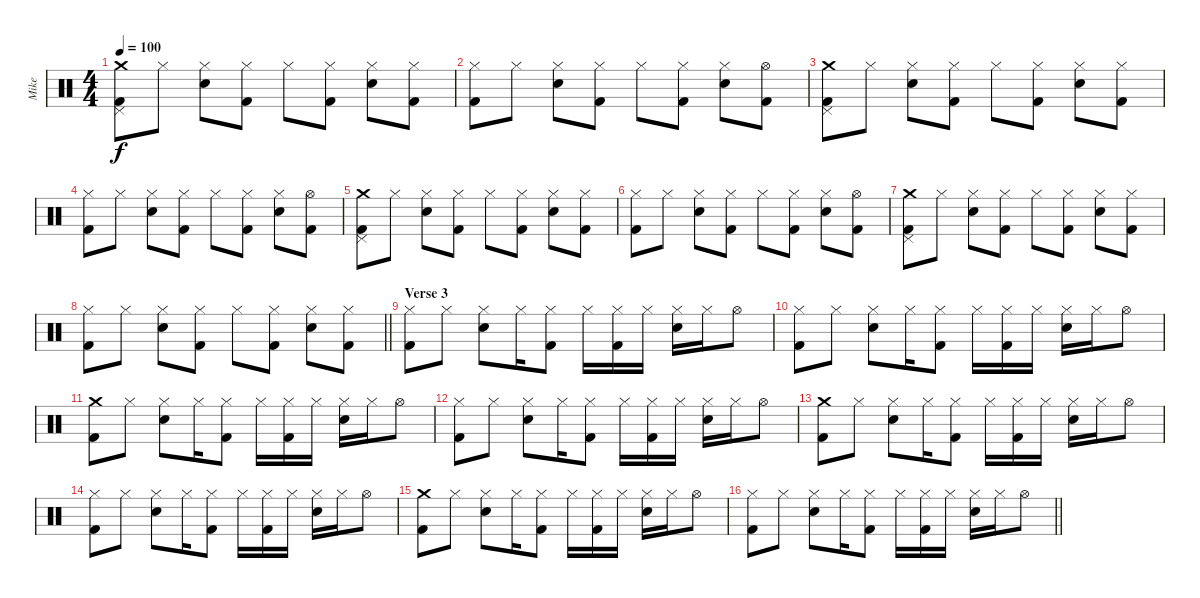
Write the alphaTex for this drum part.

\track ("Mike" "Mike") {instrument percussion}
\staff {score}
\articulation defaults
\ts (4 4)
\tempo 100
\clef neutral
\ks c
("Crash medium (hit)" "Pedal Hi-Hat (hit)" "Kick (hit) 2").8{dy f} "Hi-Hat (closed)".8 ("Hi-Hat (closed)" "Electric Snare (hit)").8 ("Hi-Hat (closed)" "Kick (hit) 2").8 "Hi-Hat (closed)".8 ("Hi-Hat (closed)" "Kick (hit) 2").8 ("Hi-Hat (closed)" "Electric Snare (hit)").8 ("Hi-Hat (closed)" "Kick (hit) 2").8 |
("Hi-Hat (closed)" "Kick (hit) 2").8 "Hi-Hat (closed)".8 ("Hi-Hat (closed)" "Electric Snare (hit)").8 ("Hi-Hat (closed)" "Kick (hit) 2").8 "Hi-Hat (closed)".8 ("Hi-Hat (closed)" "Kick (hit) 2").8 ("Hi-Hat (closed)" "Electric Snare (hit)").8 ("Hi-Hat (open)" "Kick (hit) 2").8 |
("Crash medium (hit)" "Pedal Hi-Hat (hit)" "Kick (hit) 2").8 "Hi-Hat (closed)".8 ("Hi-Hat (closed)" "Electric Snare (hit)").8 ("Hi-Hat (closed)" "Kick (hit) 2").8 "Hi-Hat (closed)".8 ("Hi-Hat (closed)" "Kick (hit) 2").8 ("Hi-Hat (closed)" "Electric Snare (hit)").8 ("Hi-Hat (closed)" "Kick (hit) 2").8 |
("Hi-Hat (closed)" "Kick (hit) 2").8 "Hi-Hat (closed)".8 ("Hi-Hat (closed)" "Electric Snare (hit)").8 ("Hi-Hat (closed)" "Kick (hit) 2").8 "Hi-Hat (closed)".8 ("Hi-Hat (closed)" "Kick (hit) 2").8 ("Hi-Hat (closed)" "Electric Snare (hit)").8 ("Hi-Hat (open)" "Kick (hit) 2").8 |
("Crash medium (hit)" "Pedal Hi-Hat (hit)" "Kick (hit) 2").8 "Hi-Hat (closed)".8 ("Hi-Hat (closed)" "Electric Snare (hit)").8 ("Hi-Hat (closed)" "Kick (hit) 2").8 "Hi-Hat (closed)".8 ("Hi-Hat (closed)" "Kick (hit) 2").8 ("Hi-Hat (closed)" "Electric Snare (hit)").8 ("Hi-Hat (closed)" "Kick (hit) 2").8 |
("Hi-Hat (closed)" "Kick (hit) 2").8 "Hi-Hat (closed)".8 ("Hi-Hat (closed)" "Electric Snare (hit)").8 ("Hi-Hat (closed)" "Kick (hit) 2").8 "Hi-Hat (closed)".8 ("Hi-Hat (closed)" "Kick (hit) 2").8 ("Hi-Hat (closed)" "Electric Snare (hit)").8 ("Hi-Hat (open)" "Kick (hit) 2").8 |
("Crash medium (hit)" "Pedal Hi-Hat (hit)" "Kick (hit) 2").8 "Hi-Hat (closed)".8 ("Hi-Hat (closed)" "Electric Snare (hit)").8 ("Hi-Hat (closed)" "Kick (hit) 2").8 "Hi-Hat (closed)".8 ("Hi-Hat (closed)" "Kick (hit) 2").8 ("Hi-Hat (closed)" "Electric Snare (hit)").8 ("Hi-Hat (closed)" "Kick (hit) 2").8 |
\barLineRight lightlight
("Hi-Hat (closed)" "Kick (hit) 2").8 "Hi-Hat (closed)".8 ("Hi-Hat (closed)" "Electric Snare (hit)").8 ("Hi-Hat (closed)" "Kick (hit) 2").8 "Hi-Hat (closed)".8 ("Hi-Hat (closed)" "Kick (hit) 2").8 ("Hi-Hat (closed)" "Electric Snare (hit)").8 ("Hi-Hat (closed)" "Kick (hit) 2").8 |
\section ("" "Verse 3")
("Hi-Hat (closed)" "Kick (hit) 2").8 "Hi-Hat (closed)".8 ("Hi-Hat (closed)" "Electric Snare (hit)").8 "Hi-Hat (closed)".16 ("Hi-Hat (closed)" "Kick (hit) 2").8 "Hi-Hat (closed)".16 ("Hi-Hat (closed)" "Kick (hit) 2").16 "Hi-Hat (closed)".16 ("Hi-Hat (closed)" "Electric Snare (hit)").16 "Hi-Hat (closed)".16 "Hi-Hat (open)".8 |
("Hi-Hat (closed)" "Kick (hit) 2").8 "Hi-Hat (closed)".8 ("Hi-Hat (closed)" "Electric Snare (hit)").8 "Hi-Hat (closed)".16 ("Hi-Hat (closed)" "Kick (hit) 2").8 "Hi-Hat (closed)".16 ("Hi-Hat (closed)" "Kick (hit) 2").16 "Hi-Hat (closed)".16 ("Hi-Hat (closed)" "Electric Snare (hit)").16 "Hi-Hat (closed)".16 "Hi-Hat (open)".8 |
("Crash medium (hit)" "Kick (hit) 2").8 "Hi-Hat (closed)".8 ("Hi-Hat (closed)" "Electric Snare (hit)").8 "Hi-Hat (closed)".16 ("Hi-Hat (closed)" "Kick (hit) 2").8 "Hi-Hat (closed)".16 ("Hi-Hat (closed)" "Kick (hit) 2").16 "Hi-Hat (closed)".16 ("Hi-Hat (closed)" "Electric Snare (hit)").16 "Hi-Hat (closed)".16 "Hi-Hat (open)".8 |
("Hi-Hat (closed)" "Kick (hit) 2").8 "Hi-Hat (closed)".8 ("Hi-Hat (closed)" "Electric Snare (hit)").8 "Hi-Hat (closed)".16 ("Hi-Hat (closed)" "Kick (hit) 2").8 "Hi-Hat (closed)".16 ("Hi-Hat (closed)" "Kick (hit) 2").16 "Hi-Hat (closed)".16 ("Hi-Hat (closed)" "Electric Snare (hit)").16 "Hi-Hat (closed)".16 "Hi-Hat (open)".8 |
("Crash medium (hit)" "Kick (hit) 2").8 "Hi-Hat (closed)".8 ("Hi-Hat (closed)" "Electric Snare (hit)").8 "Hi-Hat (closed)".16 ("Hi-Hat (closed)" "Kick (hit) 2").8 "Hi-Hat (closed)".16 ("Hi-Hat (closed)" "Kick (hit) 2").16 "Hi-Hat (closed)".16 ("Hi-Hat (closed)" "Electric Snare (hit)").16 "Hi-Hat (closed)".16 "Hi-Hat (open)".8 |
("Hi-Hat (closed)" "Kick (hit) 2").8 "Hi-Hat (closed)".8 ("Hi-Hat (closed)" "Electric Snare (hit)").8 "Hi-Hat (closed)".16 ("Hi-Hat (closed)" "Kick (hit) 2").8 "Hi-Hat (closed)".16 ("Hi-Hat (closed)" "Kick (hit) 2").16 "Hi-Hat (closed)".16 ("Hi-Hat (closed)" "Electric Snare (hit)").16 "Hi-Hat (closed)".16 "Hi-Hat (open)".8 |
("Crash medium (hit)" "Kick (hit) 2").8 "Hi-Hat (closed)".8 ("Hi-Hat (closed)" "Electric Snare (hit)").8 "Hi-Hat (closed)".16 ("Hi-Hat (closed)" "Kick (hit) 2").8 "Hi-Hat (closed)".16 ("Hi-Hat (closed)" "Kick (hit) 2").16 "Hi-Hat (closed)".16 ("Hi-Hat (closed)" "Electric Snare (hit)").16 "Hi-Hat (closed)".16 "Hi-Hat (open)".8 |
\barLineRight lightlight
("Hi-Hat (closed)" "Kick (hit) 2").8 "Hi-Hat (closed)".8 ("Hi-Hat (closed)" "Electric Snare (hit)").8 "Hi-Hat (closed)".16 ("Hi-Hat (closed)" "Kick (hit) 2").8 "Hi-Hat (closed)".16 ("Hi-Hat (closed)" "Kick (hit) 2").16 "Hi-Hat (closed)".16 ("Hi-Hat (closed)" "Electric Snare (hit)").16 "Hi-Hat (closed)".16 "Hi-Hat (open)".8
